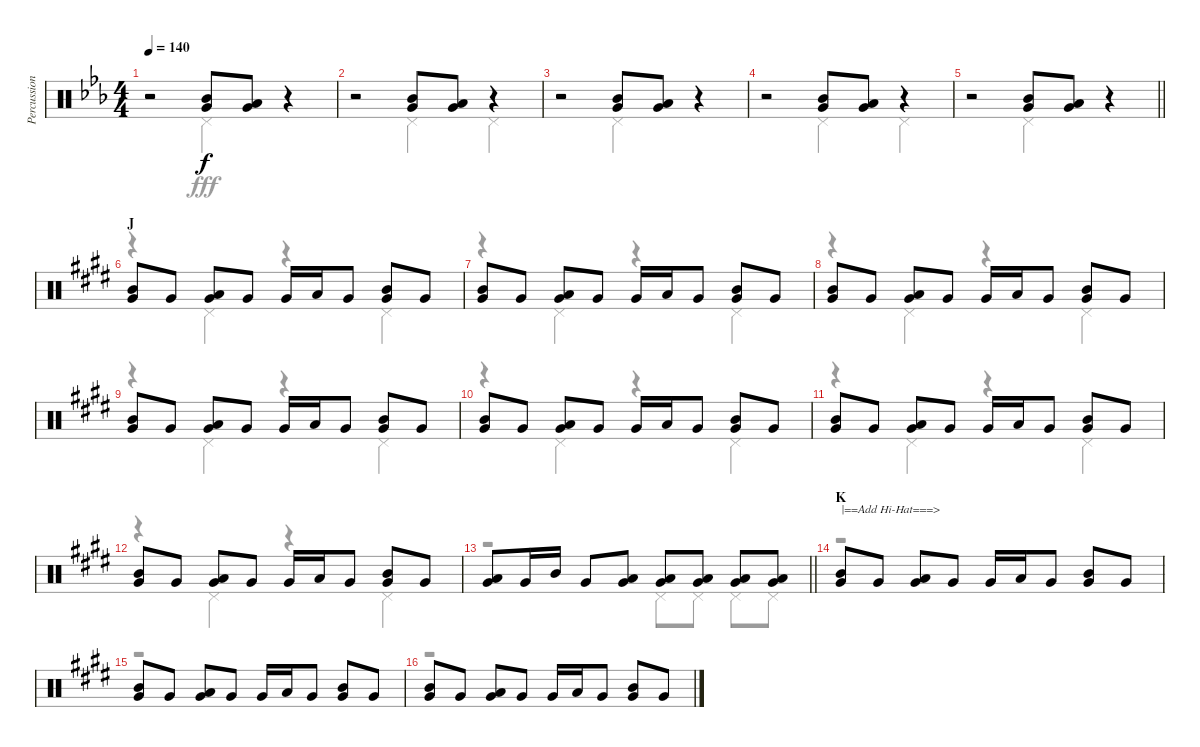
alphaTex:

\track ("Percussion" "Percussion") {instrument percussion}
\staff {score}
\articulation defaults
\voice
\ts (4 4)
\tempo 140
\clef neutral
\ks eb
r.2{dy f} ("Mid Tom (hit)" "Very Low Tom (hit)").8 ("Low Tom (hit)" "Very Low Tom (hit)").8 r.4 |
r.2 ("Mid Tom (hit)" "Very Low Tom (hit)").8 ("Low Tom (hit)" "Very Low Tom (hit)").8 r.4 |
r.2 ("Mid Tom (hit)" "Very Low Tom (hit)").8 ("Low Tom (hit)" "Very Low Tom (hit)").8 r.4 |
r.2 ("Mid Tom (hit)" "Very Low Tom (hit)").8 ("Low Tom (hit)" "Very Low Tom (hit)").8 r.4 |
\barLineRight lightlight
r.2 ("Mid Tom (hit)" "Very Low Tom (hit)").8 ("Low Tom (hit)" "Very Low Tom (hit)").8 r.4 |
\section ("" "J")
\ks e
("Mid Tom (hit)" "Very Low Tom (hit)").8 "Very Low Tom (hit)".8 ("Low Tom (hit)" "Very Low Tom (hit)").8 "Very Low Tom (hit)".8 "Very Low Tom (hit)".16 "Low Tom (hit)".16 "Very Low Tom (hit)".8 ("Mid Tom (hit)" "Very Low Tom (hit)").8 "Very Low Tom (hit)".8 |
("Mid Tom (hit)" "Very Low Tom (hit)").8 "Very Low Tom (hit)".8 ("Low Tom (hit)" "Very Low Tom (hit)").8 "Very Low Tom (hit)".8 "Very Low Tom (hit)".16 "Low Tom (hit)".16 "Very Low Tom (hit)".8 ("Mid Tom (hit)" "Very Low Tom (hit)").8 "Very Low Tom (hit)".8 |
("Mid Tom (hit)" "Very Low Tom (hit)").8 "Very Low Tom (hit)".8 ("Low Tom (hit)" "Very Low Tom (hit)").8 "Very Low Tom (hit)".8 "Very Low Tom (hit)".16 "Low Tom (hit)".16 "Very Low Tom (hit)".8 ("Mid Tom (hit)" "Very Low Tom (hit)").8 "Very Low Tom (hit)".8 |
("Mid Tom (hit)" "Very Low Tom (hit)").8 "Very Low Tom (hit)".8 ("Low Tom (hit)" "Very Low Tom (hit)").8 "Very Low Tom (hit)".8 "Very Low Tom (hit)".16 "Low Tom (hit)".16 "Very Low Tom (hit)".8 ("Mid Tom (hit)" "Very Low Tom (hit)").8 "Very Low Tom (hit)".8 |
("Mid Tom (hit)" "Very Low Tom (hit)").8 "Very Low Tom (hit)".8 ("Low Tom (hit)" "Very Low Tom (hit)").8 "Very Low Tom (hit)".8 "Very Low Tom (hit)".16 "Low Tom (hit)".16 "Very Low Tom (hit)".8 ("Mid Tom (hit)" "Very Low Tom (hit)").8 "Very Low Tom (hit)".8 |
("Mid Tom (hit)" "Very Low Tom (hit)").8 "Very Low Tom (hit)".8 ("Low Tom (hit)" "Very Low Tom (hit)").8 "Very Low Tom (hit)".8 "Very Low Tom (hit)".16 "Low Tom (hit)".16 "Very Low Tom (hit)".8 ("Mid Tom (hit)" "Very Low Tom (hit)").8 "Very Low Tom (hit)".8 |
("Mid Tom (hit)" "Very Low Tom (hit)").8 "Very Low Tom (hit)".8 ("Low Tom (hit)" "Very Low Tom (hit)").8 "Very Low Tom (hit)".8 "Very Low Tom (hit)".16 "Low Tom (hit)".16 "Very Low Tom (hit)".8 ("Mid Tom (hit)" "Very Low Tom (hit)").8 "Very Low Tom (hit)".8 |
\barLineRight lightlight
("Low Tom (hit)" "Very Low Tom (hit)").8 "Very Low Tom (hit)".16 "Mid Tom (hit)".16 "Very Low Tom (hit)".8 ("Low Tom (hit)" "Very Low Tom (hit)").8 ("Low Tom (hit)" "Very Low Tom (hit)").8 ("Low Tom (hit)" "Very Low Tom (hit)").8 ("Low Tom (hit)" "Very Low Tom (hit)").8 ("Low Tom (hit)" "Very Low Tom (hit)").8 |
\section ("" "K")
("Mid Tom (hit)" "Very Low Tom (hit)").8{txt "|==Add Hi-Hat===>"} "Very Low Tom (hit)".8 ("Low Tom (hit)" "Very Low Tom (hit)").8 "Very Low Tom (hit)".8 "Very Low Tom (hit)".16 "Low Tom (hit)".16 "Very Low Tom (hit)".8 ("Mid Tom (hit)" "Very Low Tom (hit)").8 "Very Low Tom (hit)".8 |
("Mid Tom (hit)" "Very Low Tom (hit)").8 "Very Low Tom (hit)".8 ("Low Tom (hit)" "Very Low Tom (hit)").8 "Very Low Tom (hit)".8 "Very Low Tom (hit)".16 "Low Tom (hit)".16 "Very Low Tom (hit)".8 ("Mid Tom (hit)" "Very Low Tom (hit)").8 "Very Low Tom (hit)".8 |
("Mid Tom (hit)" "Very Low Tom (hit)").8 "Very Low Tom (hit)".8 ("Low Tom (hit)" "Very Low Tom (hit)").8 "Very Low Tom (hit)".8 "Very Low Tom (hit)".16 "Low Tom (hit)".16 "Very Low Tom (hit)".8 ("Mid Tom (hit)" "Very Low Tom (hit)").8 "Very Low Tom (hit)".8
\voice
\clef neutral
\ottava regular
\simile none
\ks eb
r.2{dy fff} "Pedal Hi-Hat (hit)".4 r.4 |
r.2 "Pedal Hi-Hat (hit)".4 "Pedal Hi-Hat (hit)".4 |
r.2 "Pedal Hi-Hat (hit)".4 r.4 |
r.2 "Pedal Hi-Hat (hit)".4 "Pedal Hi-Hat (hit)".4 |
\barLineRight lightlight
r.2 "Pedal Hi-Hat (hit)".4 r.4 |
\ks e
r.4 "Pedal Hi-Hat (hit)".4 r.4 "Pedal Hi-Hat (hit)".4 |
r.4 "Pedal Hi-Hat (hit)".4 r.4 "Pedal Hi-Hat (hit)".4 |
r.4 "Pedal Hi-Hat (hit)".4 r.4 "Pedal Hi-Hat (hit)".4 |
r.4 "Pedal Hi-Hat (hit)".4 r.4 "Pedal Hi-Hat (hit)".4 |
r.4 "Pedal Hi-Hat (hit)".4 r.4 "Pedal Hi-Hat (hit)".4 |
r.4 "Pedal Hi-Hat (hit)".4 r.4 "Pedal Hi-Hat (hit)".4 |
r.4 "Pedal Hi-Hat (hit)".4 r.4 "Pedal Hi-Hat (hit)".4 |
\barLineRight lightlight
r.2 "Pedal Hi-Hat (hit)".8 "Pedal Hi-Hat (hit)".8 "Pedal Hi-Hat (hit)".8 "Pedal Hi-Hat (hit)".8 |
r.1 |
r.1 |
r.1
